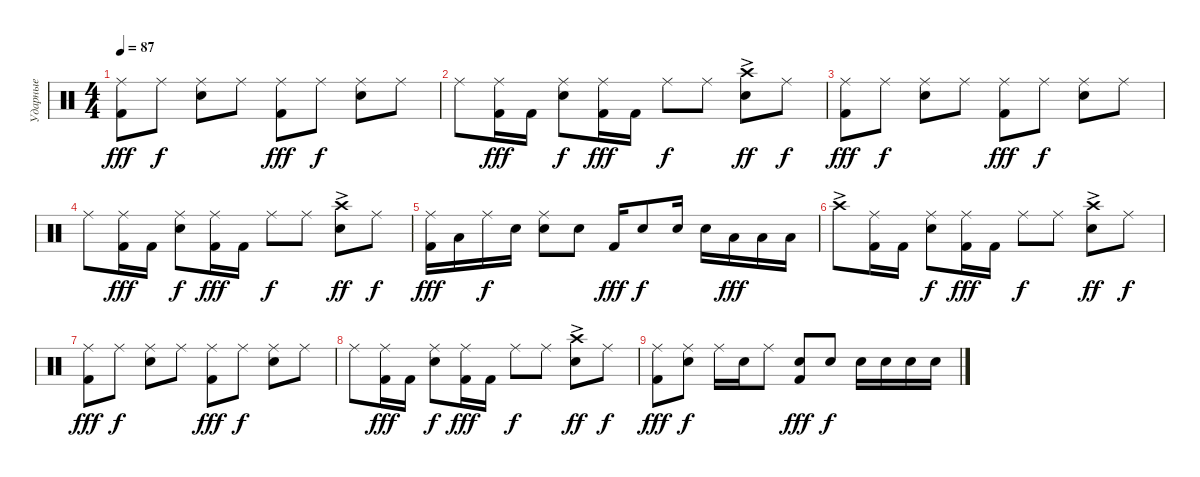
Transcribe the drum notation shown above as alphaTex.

\track ("Ударные" "Ударные") {instrument percussion}
\staff {score}
\articulation defaults
\ts (4 4)
\tempo 87
\clef neutral
\ks c
("Kick (hit) 2" "Ride (middle)").8{dy fff} "Ride (middle)".8{dy f} ("Snare (hit) 2" "Ride (middle)").8 "Ride (middle)".8 ("Kick (hit) 2" "Ride (middle)").8{dy fff} "Ride (middle)".8{dy f} ("Snare (hit) 2" "Ride (middle)").8 "Ride (middle)".8 |
"Ride (middle)".8 ("Kick (hit) 2" "Ride (middle)").16{dy fff} "Kick (hit) 2".16 ("Snare (hit) 2" "Ride (middle)").8{dy f} ("Kick (hit) 2" "Ride (middle)").16{dy fff} "Kick (hit) 2".16 "Ride (middle)".8{dy f} "Ride (middle)".8 ("Snare (hit) 2" "Crash high (hit)"{ac}).8{dy ff} "Ride (middle)".8{dy f} |
("Kick (hit) 2" "Ride (middle)").8{dy fff} "Ride (middle)".8{dy f} ("Snare (hit) 2" "Ride (middle)").8 "Ride (middle)".8 ("Kick (hit) 2" "Ride (middle)").8{dy fff} "Ride (middle)".8{dy f} ("Snare (hit) 2" "Ride (middle)").8 "Ride (middle)".8 |
"Ride (middle)".8 ("Kick (hit) 2" "Ride (middle)").16{dy fff} "Kick (hit) 2".16 ("Snare (hit) 2" "Ride (middle)").8{dy f} ("Kick (hit) 2" "Ride (middle)").16{dy fff} "Kick (hit) 2".16 "Ride (middle)".8{dy f} "Ride (middle)".8 ("Snare (hit) 2" "Crash high (hit)"{ac}).8{dy ff} "Ride (middle)".8{dy f} |
("Kick (hit) 2" "Ride (middle)").16{dy fff} "Low Tom (hit)".16 "Ride (middle)".16{dy f} "Snare (hit) 2".16 ("Snare (hit) 2" "Ride (middle)").8 "Snare (hit) 2".8 "Kick (hit) 2".16{dy fff} "Snare (hit) 2".8{dy f} "Snare (hit) 2".16 "Snare (hit) 2".16 "Low Tom (hit)".16{dy fff} "Low Tom (hit)".16 "Low Tom (hit)".16 |
"Crash high (hit)"{ac}.8 ("Kick (hit) 2" "Ride (middle)").16 "Kick (hit) 2".16 ("Snare (hit) 2" "Ride (middle)").8{dy f} ("Kick (hit) 2" "Ride (middle)").16{dy fff} "Kick (hit) 2".16 "Ride (middle)".8{dy f} "Ride (middle)".8 ("Snare (hit) 2" "Crash high (hit)"{ac}).8{dy ff} "Ride (middle)".8{dy f} |
("Kick (hit) 2" "Ride (middle)").8{dy fff} "Ride (middle)".8{dy f} ("Snare (hit) 2" "Ride (middle)").8 "Ride (middle)".8 ("Kick (hit) 2" "Ride (middle)").8{dy fff} "Ride (middle)".8{dy f} ("Snare (hit) 2" "Ride (middle)").8 "Ride (middle)".8 |
"Ride (middle)".8 ("Kick (hit) 2" "Ride (middle)").16{dy fff} "Kick (hit) 2".16 ("Snare (hit) 2" "Ride (middle)").8{dy f} ("Kick (hit) 2" "Ride (middle)").16{dy fff} "Kick (hit) 2".16 "Ride (middle)".8{dy f} "Ride (middle)".8 ("Snare (hit) 2" "Crash high (hit)"{ac}).8{dy ff} "Ride (middle)".8{dy f} |
("Kick (hit) 2" "Ride (middle)").8{dy fff} ("Snare (hit) 2" "Ride (middle)").8{dy f} "Ride (middle)".16 "Snare (hit) 2".16 "Ride (middle)".8 ("Kick (hit) 2" "Snare (hit) 2").8{dy fff} "Snare (hit) 2".8{dy f} "Snare (hit) 2".16 "Snare (hit) 2".16 "Snare (hit) 2".16 "Snare (hit) 2".16
